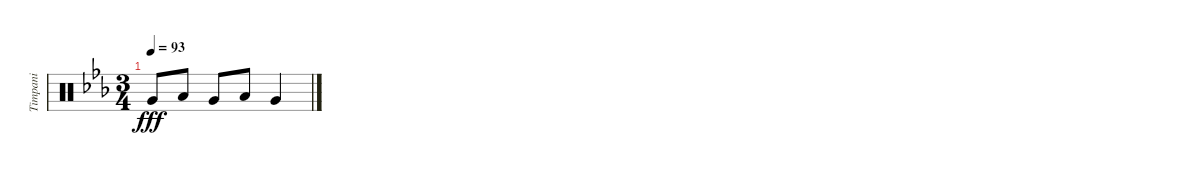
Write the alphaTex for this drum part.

\track ("Timpani" "Timpani") {instrument percussion}
\staff {score}
\articulation defaults
\ts (3 4)
\tempo 93
\clef neutral
\ks cminor "Very Low Tom (hit)".8{dy fff} "Low Floor Tom (hit)".8 "Very Low Tom (hit)".8 "Low Floor Tom (hit)".8 "Very Low Tom (hit)".4
